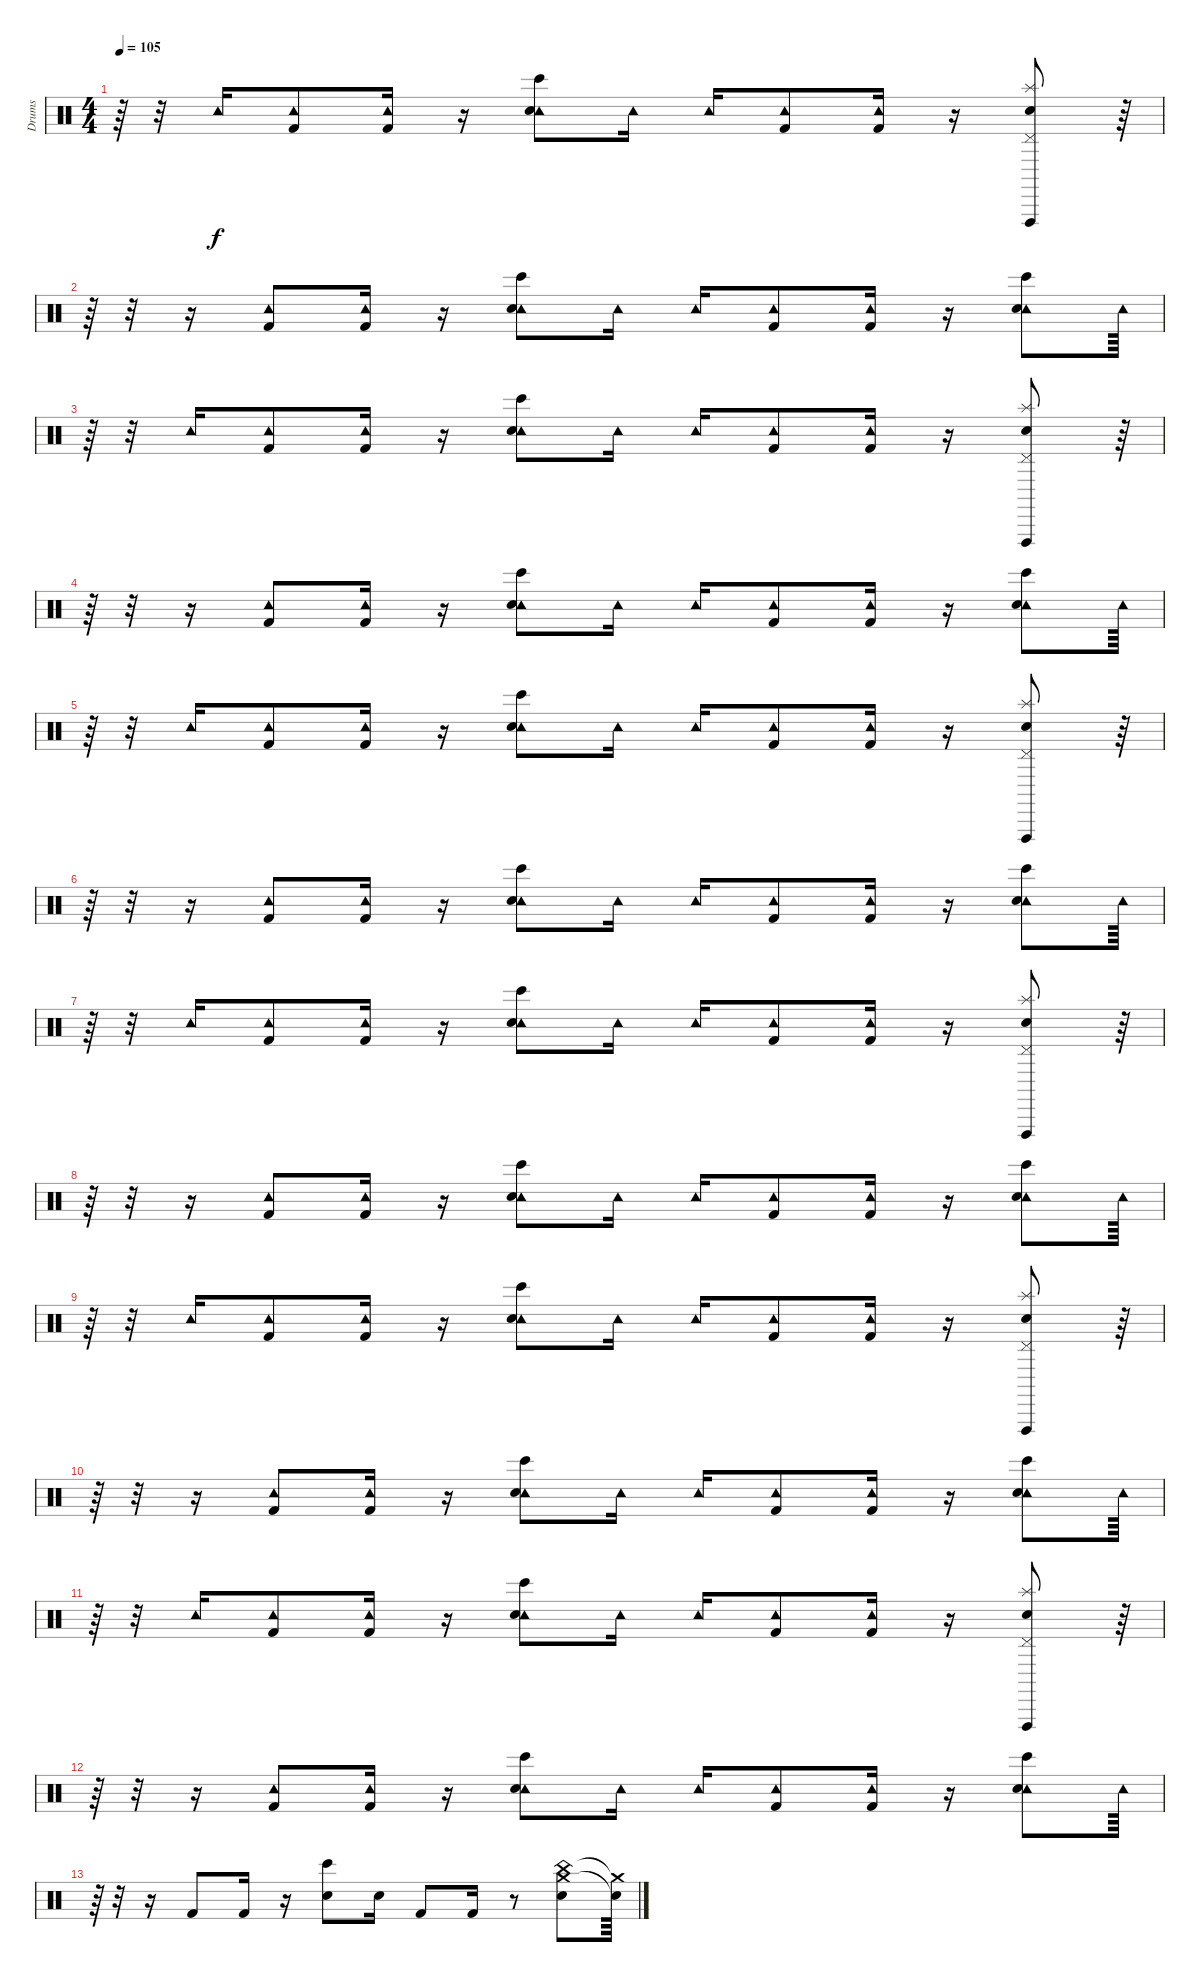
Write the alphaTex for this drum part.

\track ("Drums" "Drums") {instrument percussion}
\staff {score}
\articulation defaults
\ts (4 4)
\tempo 105
\clef neutral
\ks c
r.64{dy f} r.32 "Tambourine (hit)".16 ("Tambourine (hit)" "Kick (hit) 2").8 ("Tambourine (hit)" "Kick (hit) 2").16 r.16 ("Tambourine (hit)" "Electric Snare (hit)" "Bongo High (hit)").8 "Tambourine (hit)".16 "Tambourine (hit)".16 ("Tambourine (hit)" "Kick (hit) 2").8 ("Tambourine (hit)" "Kick (hit) 2").16 r.16 ("Splash (hit)" "Electric Snare (hit)" "Pedal Hi-Hat (hit)" "Vibraslap (hit)").8 r.64 |
r.64 r.32 r.16 ("Tambourine (hit)" "Kick (hit) 2").8 ("Tambourine (hit)" "Kick (hit) 2").16 r.16 ("Tambourine (hit)" "Electric Snare (hit)" "Bongo High (hit)").8 "Tambourine (hit)".16 "Tambourine (hit)".16 ("Tambourine (hit)" "Kick (hit) 2").8 ("Tambourine (hit)" "Kick (hit) 2").16 r.16 ("Tambourine (hit)" "Electric Snare (hit)" "Bongo High (hit)").8 "Tambourine (hit)".64 |
r.64 r.32 "Tambourine (hit)".16 ("Tambourine (hit)" "Kick (hit) 2").8 ("Tambourine (hit)" "Kick (hit) 2").16 r.16 ("Tambourine (hit)" "Electric Snare (hit)" "Bongo High (hit)").8 "Tambourine (hit)".16 "Tambourine (hit)".16 ("Tambourine (hit)" "Kick (hit) 2").8 ("Tambourine (hit)" "Kick (hit) 2").16 r.16 ("Splash (hit)" "Electric Snare (hit)" "Pedal Hi-Hat (hit)" "Vibraslap (hit)").8 r.64 |
r.64 r.32 r.16 ("Tambourine (hit)" "Kick (hit) 2").8 ("Tambourine (hit)" "Kick (hit) 2").16 r.16 ("Tambourine (hit)" "Electric Snare (hit)" "Bongo High (hit)").8 "Tambourine (hit)".16 "Tambourine (hit)".16 ("Tambourine (hit)" "Kick (hit) 2").8 ("Tambourine (hit)" "Kick (hit) 2").16 r.16 ("Tambourine (hit)" "Electric Snare (hit)" "Bongo High (hit)").8 "Tambourine (hit)".64 |
r.64 r.32 "Tambourine (hit)".16 ("Tambourine (hit)" "Kick (hit) 2").8 ("Tambourine (hit)" "Kick (hit) 2").16 r.16 ("Tambourine (hit)" "Electric Snare (hit)" "Bongo High (hit)").8 "Tambourine (hit)".16 "Tambourine (hit)".16 ("Tambourine (hit)" "Kick (hit) 2").8 ("Tambourine (hit)" "Kick (hit) 2").16 r.16 ("Splash (hit)" "Electric Snare (hit)" "Pedal Hi-Hat (hit)" "Vibraslap (hit)").8 r.64 |
r.64 r.32 r.16 ("Tambourine (hit)" "Kick (hit) 2").8 ("Tambourine (hit)" "Kick (hit) 2").16 r.16 ("Tambourine (hit)" "Electric Snare (hit)" "Bongo High (hit)").8 "Tambourine (hit)".16 "Tambourine (hit)".16 ("Tambourine (hit)" "Kick (hit) 2").8 ("Tambourine (hit)" "Kick (hit) 2").16 r.16 ("Tambourine (hit)" "Electric Snare (hit)" "Bongo High (hit)").8 "Tambourine (hit)".64 |
r.64 r.32 "Tambourine (hit)".16 ("Tambourine (hit)" "Kick (hit) 2").8 ("Tambourine (hit)" "Kick (hit) 2").16 r.16 ("Tambourine (hit)" "Electric Snare (hit)" "Bongo High (hit)").8 "Tambourine (hit)".16 "Tambourine (hit)".16 ("Tambourine (hit)" "Kick (hit) 2").8 ("Tambourine (hit)" "Kick (hit) 2").16 r.16 ("Splash (hit)" "Electric Snare (hit)" "Pedal Hi-Hat (hit)" "Vibraslap (hit)").8 r.64 |
r.64 r.32 r.16 ("Tambourine (hit)" "Kick (hit) 2").8 ("Tambourine (hit)" "Kick (hit) 2").16 r.16 ("Tambourine (hit)" "Electric Snare (hit)" "Bongo High (hit)").8 "Tambourine (hit)".16 "Tambourine (hit)".16 ("Tambourine (hit)" "Kick (hit) 2").8 ("Tambourine (hit)" "Kick (hit) 2").16 r.16 ("Tambourine (hit)" "Electric Snare (hit)" "Bongo High (hit)").8 "Tambourine (hit)".64 |
r.64 r.32 "Tambourine (hit)".16 ("Tambourine (hit)" "Kick (hit) 2").8 ("Tambourine (hit)" "Kick (hit) 2").16 r.16 ("Tambourine (hit)" "Electric Snare (hit)" "Bongo High (hit)").8 "Tambourine (hit)".16 "Tambourine (hit)".16 ("Tambourine (hit)" "Kick (hit) 2").8 ("Tambourine (hit)" "Kick (hit) 2").16 r.16 ("Splash (hit)" "Electric Snare (hit)" "Pedal Hi-Hat (hit)" "Vibraslap (hit)").8 r.64 |
r.64 r.32 r.16 ("Tambourine (hit)" "Kick (hit) 2").8 ("Tambourine (hit)" "Kick (hit) 2").16 r.16 ("Tambourine (hit)" "Electric Snare (hit)" "Bongo High (hit)").8 "Tambourine (hit)".16 "Tambourine (hit)".16 ("Tambourine (hit)" "Kick (hit) 2").8 ("Tambourine (hit)" "Kick (hit) 2").16 r.16 ("Tambourine (hit)" "Electric Snare (hit)" "Bongo High (hit)").8 "Tambourine (hit)".64 |
r.64 r.32 "Tambourine (hit)".16 ("Tambourine (hit)" "Kick (hit) 2").8 ("Tambourine (hit)" "Kick (hit) 2").16 r.16 ("Tambourine (hit)" "Electric Snare (hit)" "Bongo High (hit)").8 "Tambourine (hit)".16 "Tambourine (hit)".16 ("Tambourine (hit)" "Kick (hit) 2").8 ("Tambourine (hit)" "Kick (hit) 2").16 r.16 ("Splash (hit)" "Electric Snare (hit)" "Pedal Hi-Hat (hit)" "Vibraslap (hit)").8 r.64 |
r.64 r.32 r.16 ("Tambourine (hit)" "Kick (hit) 2").8 ("Tambourine (hit)" "Kick (hit) 2").16 r.16 ("Tambourine (hit)" "Electric Snare (hit)" "Bongo High (hit)").8 "Tambourine (hit)".16 "Tambourine (hit)".16 ("Tambourine (hit)" "Kick (hit) 2").8 ("Tambourine (hit)" "Kick (hit) 2").16 r.16 ("Tambourine (hit)" "Electric Snare (hit)" "Bongo High (hit)").8 "Tambourine (hit)".64 |
r.64 r.32 r.16 "Kick (hit) 2".8 "Kick (hit) 2".16 r.16 ("Bongo High (hit)" "Electric Snare (hit)").8 "Snare (hit) 2".16 "Kick (hit) 2".8 "Kick (hit) 2".16 r.8 ("China (hit)" "Crash medium (hit)" "Electric Snare (hit)").8 ("Crash medium (hit)"{t} "Electric Snare (hit)"{t}).64
